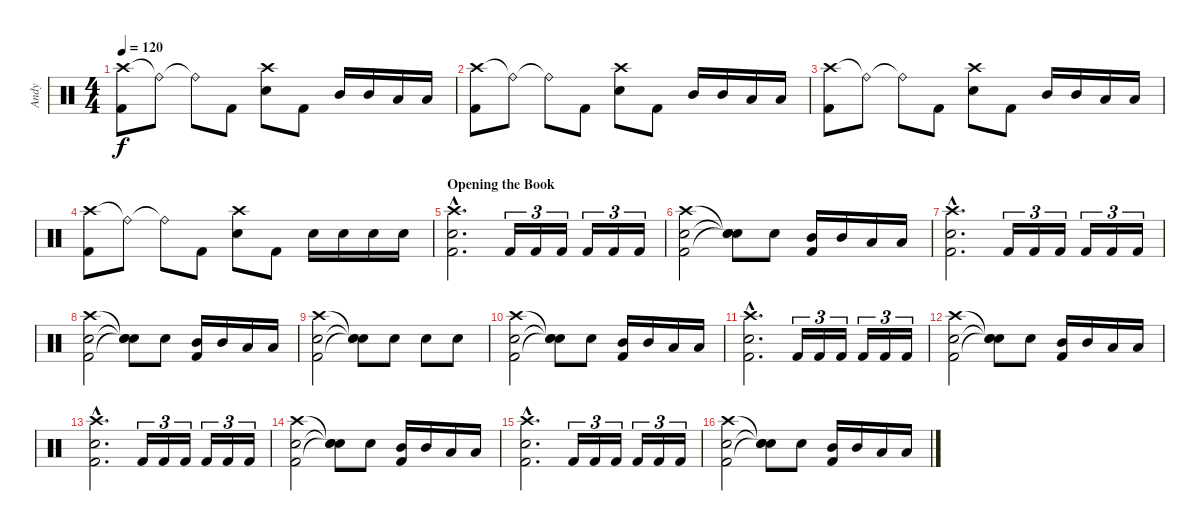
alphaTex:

\track ("Andy" "Andy") {instrument percussion}
\staff {score}
\articulation defaults
\ts (4 4)
\tempo 120
\clef neutral
\ks c
("Crash high (hit)" "Kick (hit) 2").8{dy f} "Ride (bell)"{t}.8 "Ride (bell)"{t}.8 "Kick (hit) 2".8 ("Crash high (hit)" "Snare (hit) 2").8 "Kick (hit) 2".8 "Mid Tom (hit)".16 "Mid Tom (hit)".16 "Low Tom (hit)".16 "Low Tom (hit)".16 |
("Crash high (hit)" "Kick (hit) 2").8 "Ride (bell)"{t}.8 "Ride (bell)"{t}.8 "Kick (hit) 2".8 ("Crash high (hit)" "Snare (hit) 2").8 "Kick (hit) 2".8 "Mid Tom (hit)".16 "Mid Tom (hit)".16 "Low Tom (hit)".16 "Low Tom (hit)".16 |
("Crash high (hit)" "Kick (hit) 2").8 "Ride (bell)"{t}.8 "Ride (bell)"{t}.8 "Kick (hit) 2".8 ("Crash high (hit)" "Snare (hit) 2").8 "Kick (hit) 2".8 "Mid Tom (hit)".16 "Mid Tom (hit)".16 "Low Tom (hit)".16 "Low Tom (hit)".16 |
("Crash high (hit)" "Kick (hit) 2").8 "Ride (bell)"{t}.8 "Ride (bell)"{t}.8 "Kick (hit) 2".8 ("Crash high (hit)" "Snare (hit) 2").8 "Kick (hit) 2".8 "Snare (hit) 2".16 "Snare (hit) 2".16 "Snare (hit) 2".16 "Snare (hit) 2".16 |
\section ("" "Opening the Book")
("Crash high (hit)"{hac} "Snare (hit) 2"{hac} "Kick (hit) 2"{hac}).2{d} "Kick (hit) 2".16{tu (3 2)} "Kick (hit) 2".16{tu (3 2)} "Kick (hit) 2".16{tu (3 2)} "Kick (hit) 2".16{tu (3 2)} "Kick (hit) 2".16{tu (3 2)} "Kick (hit) 2".16{tu (3 2)} |
("Crash high (hit)" "Snare (hit) 2" "Kick (hit) 2").2 ("Snare (hit)"{t} "Snare (hit)"{t} "Snare (hit)"{t}).8 "Snare (hit) 2".8 ("Mid Tom (hit)" "Kick (hit) 2").16 "Mid Tom (hit)".16 "Low Tom (hit)".16 "Low Tom (hit)".16 |
("Crash high (hit)"{hac} "Snare (hit) 2"{hac} "Kick (hit) 2"{hac}).2{d} "Kick (hit) 2".16{tu (3 2)} "Kick (hit) 2".16{tu (3 2)} "Kick (hit) 2".16{tu (3 2)} "Kick (hit) 2".16{tu (3 2)} "Kick (hit) 2".16{tu (3 2)} "Kick (hit) 2".16{tu (3 2)} |
("Crash high (hit)" "Snare (hit) 2" "Kick (hit) 2").2 ("Snare (hit)"{t} "Snare (hit)"{t} "Snare (hit)"{t}).8 "Snare (hit) 2".8 ("Mid Tom (hit)" "Kick (hit) 2").16 "Mid Tom (hit)".16 "Low Tom (hit)".16 "Low Tom (hit)".16 |
("Crash high (hit)" "Snare (hit) 2" "Kick (hit) 2").2 ("Snare (hit)"{t} "Snare (hit)"{t} "Snare (hit)"{t}).8 "Snare (hit) 2".8 "Snare (hit) 2".8 "Snare (hit) 2".8 |
("Crash high (hit)" "Snare (hit) 2" "Kick (hit) 2").2 ("Snare (hit)"{t} "Snare (hit)"{t} "Snare (hit)"{t}).8 "Snare (hit) 2".8 ("Mid Tom (hit)" "Kick (hit) 2").16 "Mid Tom (hit)".16 "Low Tom (hit)".16 "Low Tom (hit)".16 |
("Crash high (hit)"{hac} "Snare (hit) 2"{hac} "Kick (hit) 2"{hac}).2{d} "Kick (hit) 2".16{tu (3 2)} "Kick (hit) 2".16{tu (3 2)} "Kick (hit) 2".16{tu (3 2)} "Kick (hit) 2".16{tu (3 2)} "Kick (hit) 2".16{tu (3 2)} "Kick (hit) 2".16{tu (3 2)} |
("Crash high (hit)" "Snare (hit) 2" "Kick (hit) 2").2 ("Snare (hit)"{t} "Snare (hit)"{t} "Snare (hit)"{t}).8 "Snare (hit) 2".8 ("Mid Tom (hit)" "Kick (hit) 2").16 "Mid Tom (hit)".16 "Low Tom (hit)".16 "Low Tom (hit)".16 |
("Crash high (hit)"{hac} "Snare (hit) 2"{hac} "Kick (hit) 2"{hac}).2{d} "Kick (hit) 2".16{tu (3 2)} "Kick (hit) 2".16{tu (3 2)} "Kick (hit) 2".16{tu (3 2)} "Kick (hit) 2".16{tu (3 2)} "Kick (hit) 2".16{tu (3 2)} "Kick (hit) 2".16{tu (3 2)} |
("Crash high (hit)" "Snare (hit) 2" "Kick (hit) 2").2 ("Snare (hit)"{t} "Snare (hit)"{t} "Snare (hit)"{t}).8 "Snare (hit) 2".8 ("Mid Tom (hit)" "Kick (hit) 2").16 "Mid Tom (hit)".16 "Low Tom (hit)".16 "Low Tom (hit)".16 |
("Crash high (hit)"{hac} "Snare (hit) 2"{hac} "Kick (hit) 2"{hac}).2{d} "Kick (hit) 2".16{tu (3 2)} "Kick (hit) 2".16{tu (3 2)} "Kick (hit) 2".16{tu (3 2)} "Kick (hit) 2".16{tu (3 2)} "Kick (hit) 2".16{tu (3 2)} "Kick (hit) 2".16{tu (3 2)} |
("Crash high (hit)" "Snare (hit) 2" "Kick (hit) 2").2 ("Snare (hit)"{t} "Snare (hit)"{t} "Snare (hit)"{t}).8 "Snare (hit) 2".8 ("Mid Tom (hit)" "Kick (hit) 2").16 "Mid Tom (hit)".16 "Low Tom (hit)".16 "Low Tom (hit)".16
